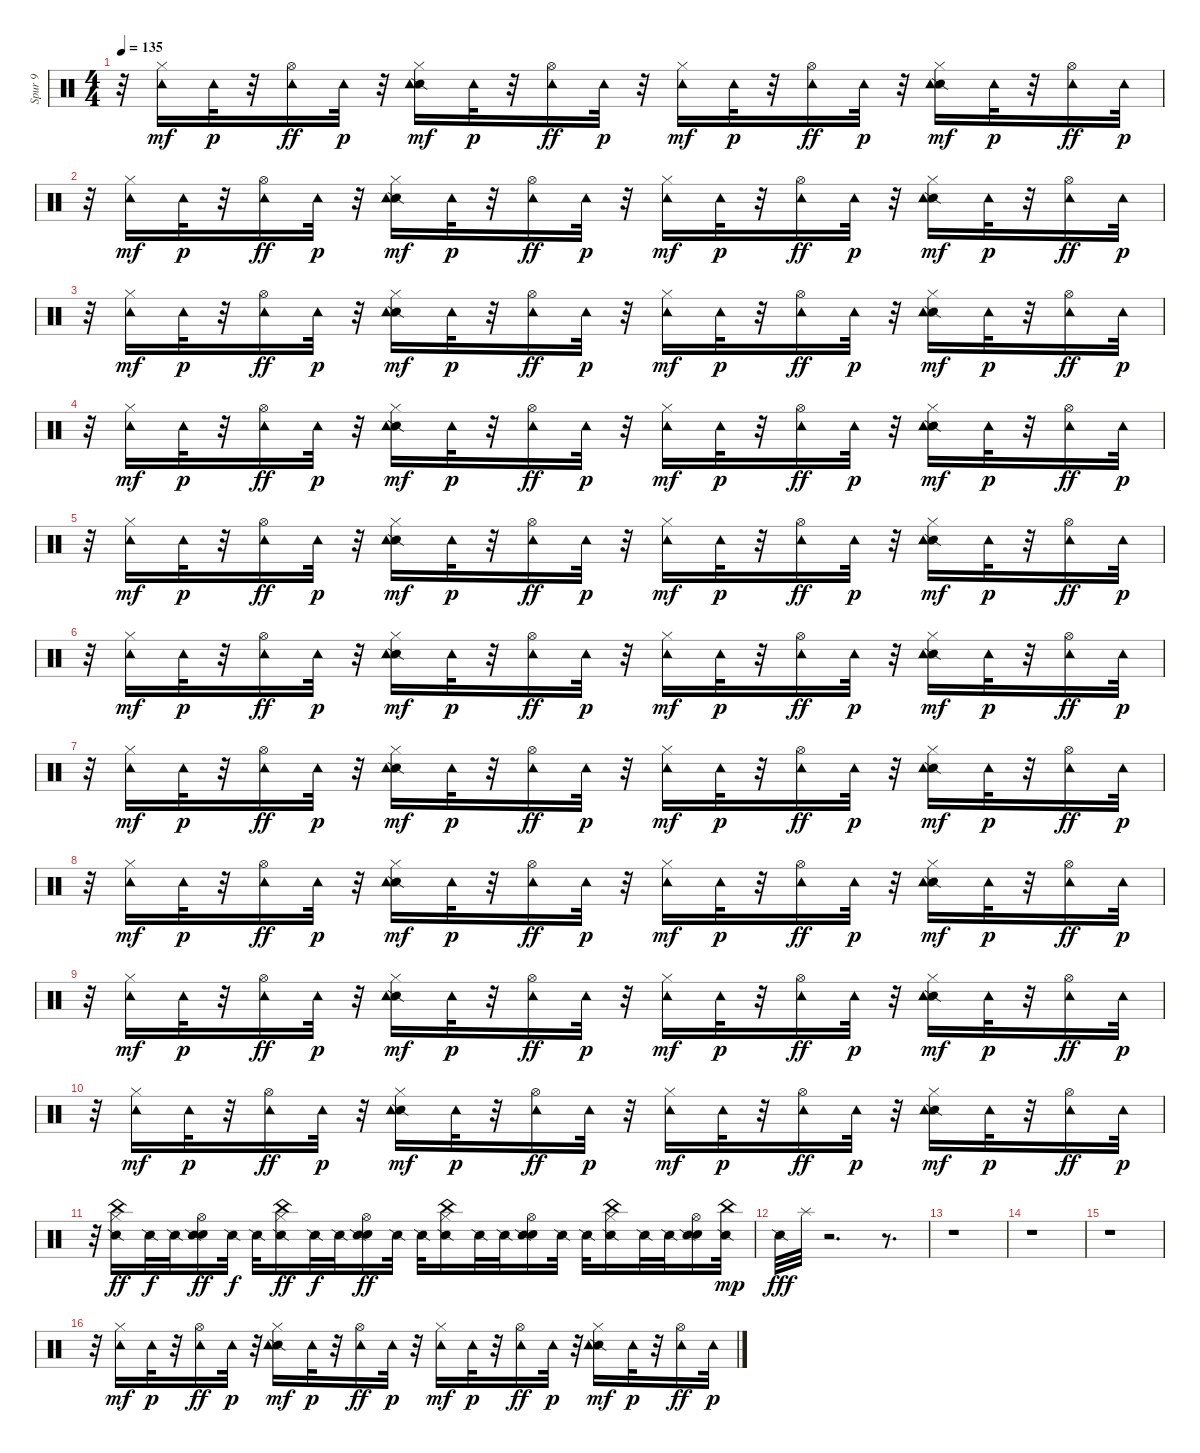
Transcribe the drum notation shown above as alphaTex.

\track ("Spur 9" "Spur 9") {instrument percussion}
\staff {score}
\articulation defaults
\ts (4 4)
\tempo 135
\clef neutral
\ks c
r.32{dy p} ("Hi-Hat (closed)" "Tambourine (hit)").16{dy mf} "Tambourine (hit)".32{dy p} r.32 ("Hi-Hat (open)" "Tambourine (hit)").16{dy ff} "Tambourine (hit)".32{dy p} r.32 ("Snare (side stick) 2" "Hi-Hat (closed)" "Tambourine (hit)").16{dy mf} "Tambourine (hit)".32{dy p} r.32 ("Hi-Hat (open)" "Tambourine (hit)").16{dy ff} "Tambourine (hit)".32{dy p} r.32 ("Hi-Hat (closed)" "Tambourine (hit)").16{dy mf} "Tambourine (hit)".32{dy p} r.32 ("Hi-Hat (open)" "Tambourine (hit)").16{dy ff} "Tambourine (hit)".32{dy p} r.32 ("Snare (side stick) 2" "Hi-Hat (closed)" "Tambourine (hit)").16{dy mf} "Tambourine (hit)".32{dy p} r.32 ("Hi-Hat (open)" "Tambourine (hit)").16{dy ff} "Tambourine (hit)".32{dy p} |
r.32 ("Hi-Hat (closed)" "Tambourine (hit)").16{dy mf} "Tambourine (hit)".32{dy p} r.32 ("Hi-Hat (open)" "Tambourine (hit)").16{dy ff} "Tambourine (hit)".32{dy p} r.32 ("Snare (side stick) 2" "Hi-Hat (closed)" "Tambourine (hit)").16{dy mf} "Tambourine (hit)".32{dy p} r.32 ("Hi-Hat (open)" "Tambourine (hit)").16{dy ff} "Tambourine (hit)".32{dy p} r.32 ("Hi-Hat (closed)" "Tambourine (hit)").16{dy mf} "Tambourine (hit)".32{dy p} r.32 ("Hi-Hat (open)" "Tambourine (hit)").16{dy ff} "Tambourine (hit)".32{dy p} r.32 ("Snare (side stick) 2" "Hi-Hat (closed)" "Tambourine (hit)").16{dy mf} "Tambourine (hit)".32{dy p} r.32 ("Hi-Hat (open)" "Tambourine (hit)").16{dy ff} "Tambourine (hit)".32{dy p} |
r.32 ("Hi-Hat (closed)" "Tambourine (hit)").16{dy mf} "Tambourine (hit)".32{dy p} r.32 ("Hi-Hat (open)" "Tambourine (hit)").16{dy ff} "Tambourine (hit)".32{dy p} r.32 ("Snare (side stick) 2" "Hi-Hat (closed)" "Tambourine (hit)").16{dy mf} "Tambourine (hit)".32{dy p} r.32 ("Hi-Hat (open)" "Tambourine (hit)").16{dy ff} "Tambourine (hit)".32{dy p} r.32 ("Hi-Hat (closed)" "Tambourine (hit)").16{dy mf} "Tambourine (hit)".32{dy p} r.32 ("Hi-Hat (open)" "Tambourine (hit)").16{dy ff} "Tambourine (hit)".32{dy p} r.32 ("Snare (side stick) 2" "Hi-Hat (closed)" "Tambourine (hit)").16{dy mf} "Tambourine (hit)".32{dy p} r.32 ("Hi-Hat (open)" "Tambourine (hit)").16{dy ff} "Tambourine (hit)".32{dy p} |
r.32 ("Hi-Hat (closed)" "Tambourine (hit)").16{dy mf} "Tambourine (hit)".32{dy p} r.32 ("Hi-Hat (open)" "Tambourine (hit)").16{dy ff} "Tambourine (hit)".32{dy p} r.32 ("Snare (side stick) 2" "Hi-Hat (closed)" "Tambourine (hit)").16{dy mf} "Tambourine (hit)".32{dy p} r.32 ("Hi-Hat (open)" "Tambourine (hit)").16{dy ff} "Tambourine (hit)".32{dy p} r.32 ("Hi-Hat (closed)" "Tambourine (hit)").16{dy mf} "Tambourine (hit)".32{dy p} r.32 ("Hi-Hat (open)" "Tambourine (hit)").16{dy ff} "Tambourine (hit)".32{dy p} r.32 ("Snare (side stick) 2" "Hi-Hat (closed)" "Tambourine (hit)").16{dy mf} "Tambourine (hit)".32{dy p} r.32 ("Hi-Hat (open)" "Tambourine (hit)").16{dy ff} "Tambourine (hit)".32{dy p} |
r.32 ("Hi-Hat (closed)" "Tambourine (hit)").16{dy mf} "Tambourine (hit)".32{dy p} r.32 ("Hi-Hat (open)" "Tambourine (hit)").16{dy ff} "Tambourine (hit)".32{dy p} r.32 ("Snare (side stick) 2" "Hi-Hat (closed)" "Tambourine (hit)").16{dy mf} "Tambourine (hit)".32{dy p} r.32 ("Hi-Hat (open)" "Tambourine (hit)").16{dy ff} "Tambourine (hit)".32{dy p} r.32 ("Hi-Hat (closed)" "Tambourine (hit)").16{dy mf} "Tambourine (hit)".32{dy p} r.32 ("Hi-Hat (open)" "Tambourine (hit)").16{dy ff} "Tambourine (hit)".32{dy p} r.32 ("Snare (side stick) 2" "Hi-Hat (closed)" "Tambourine (hit)").16{dy mf} "Tambourine (hit)".32{dy p} r.32 ("Hi-Hat (open)" "Tambourine (hit)").16{dy ff} "Tambourine (hit)".32{dy p} |
r.32 ("Hi-Hat (closed)" "Tambourine (hit)").16{dy mf} "Tambourine (hit)".32{dy p} r.32 ("Hi-Hat (open)" "Tambourine (hit)").16{dy ff} "Tambourine (hit)".32{dy p} r.32 ("Snare (side stick) 2" "Hi-Hat (closed)" "Tambourine (hit)").16{dy mf} "Tambourine (hit)".32{dy p} r.32 ("Hi-Hat (open)" "Tambourine (hit)").16{dy ff} "Tambourine (hit)".32{dy p} r.32 ("Hi-Hat (closed)" "Tambourine (hit)").16{dy mf} "Tambourine (hit)".32{dy p} r.32 ("Hi-Hat (open)" "Tambourine (hit)").16{dy ff} "Tambourine (hit)".32{dy p} r.32 ("Snare (side stick) 2" "Hi-Hat (closed)" "Tambourine (hit)").16{dy mf} "Tambourine (hit)".32{dy p} r.32 ("Hi-Hat (open)" "Tambourine (hit)").16{dy ff} "Tambourine (hit)".32{dy p} |
r.32 ("Hi-Hat (closed)" "Tambourine (hit)").16{dy mf} "Tambourine (hit)".32{dy p} r.32 ("Hi-Hat (open)" "Tambourine (hit)").16{dy ff} "Tambourine (hit)".32{dy p} r.32 ("Snare (side stick) 2" "Hi-Hat (closed)" "Tambourine (hit)").16{dy mf} "Tambourine (hit)".32{dy p} r.32 ("Hi-Hat (open)" "Tambourine (hit)").16{dy ff} "Tambourine (hit)".32{dy p} r.32 ("Hi-Hat (closed)" "Tambourine (hit)").16{dy mf} "Tambourine (hit)".32{dy p} r.32 ("Hi-Hat (open)" "Tambourine (hit)").16{dy ff} "Tambourine (hit)".32{dy p} r.32 ("Snare (side stick) 2" "Hi-Hat (closed)" "Tambourine (hit)").16{dy mf} "Tambourine (hit)".32{dy p} r.32 ("Hi-Hat (open)" "Tambourine (hit)").16{dy ff} "Tambourine (hit)".32{dy p} |
r.32 ("Hi-Hat (closed)" "Tambourine (hit)").16{dy mf} "Tambourine (hit)".32{dy p} r.32 ("Hi-Hat (open)" "Tambourine (hit)").16{dy ff} "Tambourine (hit)".32{dy p} r.32 ("Snare (side stick) 2" "Hi-Hat (closed)" "Tambourine (hit)").16{dy mf} "Tambourine (hit)".32{dy p} r.32 ("Hi-Hat (open)" "Tambourine (hit)").16{dy ff} "Tambourine (hit)".32{dy p} r.32 ("Hi-Hat (closed)" "Tambourine (hit)").16{dy mf} "Tambourine (hit)".32{dy p} r.32 ("Hi-Hat (open)" "Tambourine (hit)").16{dy ff} "Tambourine (hit)".32{dy p} r.32 ("Snare (side stick) 2" "Hi-Hat (closed)" "Tambourine (hit)").16{dy mf} "Tambourine (hit)".32{dy p} r.32 ("Hi-Hat (open)" "Tambourine (hit)").16{dy ff} "Tambourine (hit)".32{dy p} |
r.32 ("Hi-Hat (closed)" "Tambourine (hit)").16{dy mf} "Tambourine (hit)".32{dy p} r.32 ("Hi-Hat (open)" "Tambourine (hit)").16{dy ff} "Tambourine (hit)".32{dy p} r.32 ("Snare (side stick) 2" "Hi-Hat (closed)" "Tambourine (hit)").16{dy mf} "Tambourine (hit)".32{dy p} r.32 ("Hi-Hat (open)" "Tambourine (hit)").16{dy ff} "Tambourine (hit)".32{dy p} r.32 ("Hi-Hat (closed)" "Tambourine (hit)").16{dy mf} "Tambourine (hit)".32{dy p} r.32 ("Hi-Hat (open)" "Tambourine (hit)").16{dy ff} "Tambourine (hit)".32{dy p} r.32 ("Snare (side stick) 2" "Hi-Hat (closed)" "Tambourine (hit)").16{dy mf} "Tambourine (hit)".32{dy p} r.32 ("Hi-Hat (open)" "Tambourine (hit)").16{dy ff} "Tambourine (hit)".32{dy p} |
r.32 ("Hi-Hat (closed)" "Tambourine (hit)").16{dy mf} "Tambourine (hit)".32{dy p} r.32 ("Hi-Hat (open)" "Tambourine (hit)").16{dy ff} "Tambourine (hit)".32{dy p} r.32 ("Snare (side stick) 2" "Hi-Hat (closed)" "Tambourine (hit)").16{dy mf} "Tambourine (hit)".32{dy p} r.32 ("Hi-Hat (open)" "Tambourine (hit)").16{dy ff} "Tambourine (hit)".32{dy p} r.32 ("Hi-Hat (closed)" "Tambourine (hit)").16{dy mf} "Tambourine (hit)".32{dy p} r.32 ("Hi-Hat (open)" "Tambourine (hit)").16{dy ff} "Tambourine (hit)".32{dy p} r.32 ("Snare (side stick) 2" "Hi-Hat (closed)" "Tambourine (hit)").16{dy mf} "Tambourine (hit)".32{dy p} r.32 ("Hi-Hat (open)" "Tambourine (hit)").16{dy ff} "Tambourine (hit)".32{dy p} |
r.32 ("Snare (side stick) 2" "Hi-Hat (closed)" "China (hit)").16{dy ff} "Snare (side stick) 2".32{dy f} "Snare (side stick) 2".32 ("Snare (hit)" "Snare (side stick) 2" "Hi-Hat (open)").16{dy ff} "Snare (side stick) 2".32{dy f} "Snare (side stick) 2".32 ("Snare (side stick) 2" "Hi-Hat (closed)" "China (hit)").16{dy ff} "Snare (side stick) 2".32{dy f} "Snare (side stick) 2".32 ("Snare (hit)" "Snare (side stick) 2" "Hi-Hat (open)").16{dy ff} "Snare (side stick) 2".32 "Snare (side stick) 2".32 ("Snare (side stick) 2" "Hi-Hat (closed)" "China (hit)").16 "Snare (side stick) 2".32 "Snare (side stick) 2".32 ("Snare (hit)" "Snare (side stick) 2" "Hi-Hat (open)").16 "Snare (side stick) 2".32 "Snare (side stick) 2".32 ("Snare (side stick) 2" "Hi-Hat (closed)" "China (hit)").16 "Snare (side stick) 2".32 "Snare (side stick) 2".32 ("Snare (hit)" "Snare (side stick) 2" "Hi-Hat (open)").16 ("Snare (side stick) 2" "China (hit)").32{dy mp} |
"Snare (side stick) 2".32{dy fff} "Splash (hit)".32 r.2{d} r.8{d} |
r.1 |
r.1 |
r.1 |
r.32 ("Hi-Hat (closed)" "Tambourine (hit)").16{dy mf} "Tambourine (hit)".32{dy p} r.32 ("Hi-Hat (open)" "Tambourine (hit)").16{dy ff} "Tambourine (hit)".32{dy p} r.32 ("Snare (side stick) 2" "Hi-Hat (closed)" "Tambourine (hit)").16{dy mf} "Tambourine (hit)".32{dy p} r.32 ("Hi-Hat (open)" "Tambourine (hit)").16{dy ff} "Tambourine (hit)".32{dy p} r.32 ("Hi-Hat (closed)" "Tambourine (hit)").16{dy mf} "Tambourine (hit)".32{dy p} r.32 ("Hi-Hat (open)" "Tambourine (hit)").16{dy ff} "Tambourine (hit)".32{dy p} r.32 ("Snare (side stick) 2" "Hi-Hat (closed)" "Tambourine (hit)").16{dy mf} "Tambourine (hit)".32{dy p} r.32 ("Hi-Hat (open)" "Tambourine (hit)").16{dy ff} "Tambourine (hit)".32{dy p}
